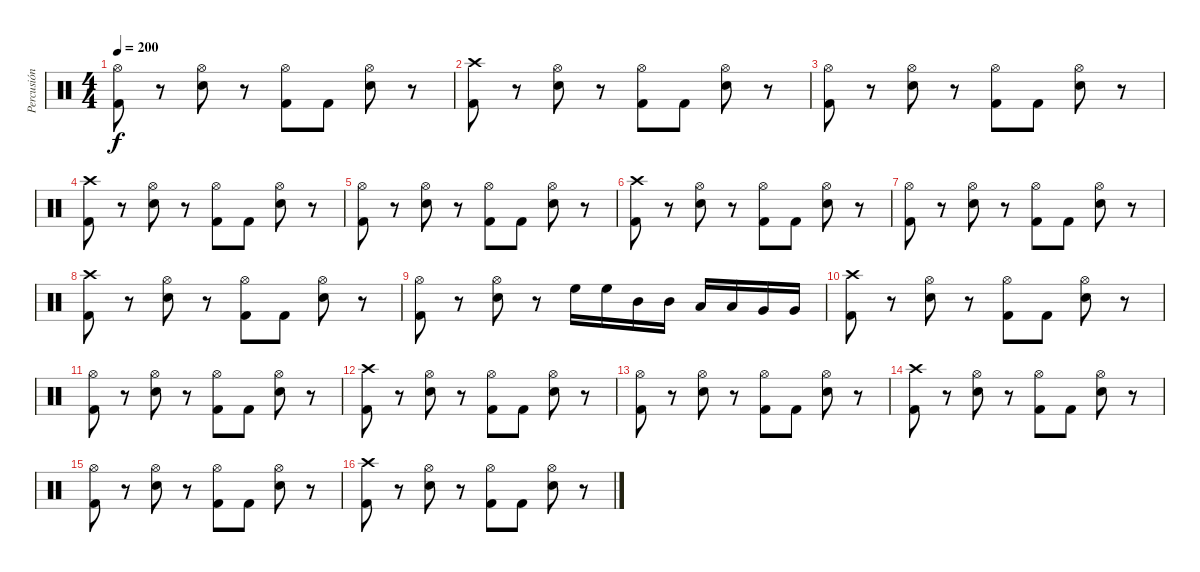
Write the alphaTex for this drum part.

\track ("Percusión" "Percusión") {instrument percussion}
\staff {score}
\articulation defaults
\ts (4 4)
\tempo 200
\clef neutral
\ks c
("Hi-Hat (open)" "Kick (hit) 2").8{dy f} r.8 ("Hi-Hat (open)" "Electric Snare (hit)").8 r.8 ("Hi-Hat (open)" "Kick (hit) 2").8 "Kick (hit) 2".8 ("Hi-Hat (open)" "Electric Snare (hit)").8 r.8 |
("Crash high (hit)" "Kick (hit) 2").8 r.8 ("Hi-Hat (open)" "Electric Snare (hit)").8 r.8 ("Hi-Hat (open)" "Kick (hit) 2").8 "Kick (hit) 2".8 ("Hi-Hat (open)" "Electric Snare (hit)").8 r.8 |
("Hi-Hat (open)" "Kick (hit) 2").8 r.8 ("Hi-Hat (open)" "Electric Snare (hit)").8 r.8 ("Hi-Hat (open)" "Kick (hit) 2").8 "Kick (hit) 2".8 ("Hi-Hat (open)" "Electric Snare (hit)").8 r.8 |
("Crash high (hit)" "Kick (hit) 2").8 r.8 ("Hi-Hat (open)" "Electric Snare (hit)").8 r.8 ("Hi-Hat (open)" "Kick (hit) 2").8 "Kick (hit) 2".8 ("Hi-Hat (open)" "Electric Snare (hit)").8 r.8 |
("Hi-Hat (open)" "Kick (hit) 2").8 r.8 ("Hi-Hat (open)" "Electric Snare (hit)").8 r.8 ("Hi-Hat (open)" "Kick (hit) 2").8 "Kick (hit) 2".8 ("Hi-Hat (open)" "Electric Snare (hit)").8 r.8 |
("Crash high (hit)" "Kick (hit) 2").8 r.8 ("Hi-Hat (open)" "Electric Snare (hit)").8 r.8 ("Hi-Hat (open)" "Kick (hit) 2").8 "Kick (hit) 2".8 ("Hi-Hat (open)" "Electric Snare (hit)").8 r.8 |
("Hi-Hat (open)" "Kick (hit) 2").8 r.8 ("Hi-Hat (open)" "Electric Snare (hit)").8 r.8 ("Hi-Hat (open)" "Kick (hit) 2").8 "Kick (hit) 2".8 ("Hi-Hat (open)" "Electric Snare (hit)").8 r.8 |
("Crash high (hit)" "Kick (hit) 2").8 r.8 ("Hi-Hat (open)" "Electric Snare (hit)").8 r.8 ("Hi-Hat (open)" "Kick (hit) 2").8 "Kick (hit) 2".8 ("Hi-Hat (open)" "Electric Snare (hit)").8 r.8 |
("Hi-Hat (open)" "Kick (hit) 2").8 r.8 ("Hi-Hat (open)" "Electric Snare (hit)").8 r.8 "High Floor Tom (hit)".16 "High Floor Tom (hit)".16 "Mid Tom (hit)".16 "Mid Tom (hit)".16 "Low Tom (hit)".16 "Low Tom (hit)".16 "Very Low Tom (hit)".16 "Very Low Tom (hit)".16 |
("Crash high (hit)" "Kick (hit) 2").8 r.8 ("Hi-Hat (open)" "Electric Snare (hit)").8 r.8 ("Hi-Hat (open)" "Kick (hit) 2").8 "Kick (hit) 2".8 ("Hi-Hat (open)" "Electric Snare (hit)").8 r.8 |
("Hi-Hat (open)" "Kick (hit) 2").8 r.8 ("Hi-Hat (open)" "Electric Snare (hit)").8 r.8 ("Hi-Hat (open)" "Kick (hit) 2").8 "Kick (hit) 2".8 ("Hi-Hat (open)" "Electric Snare (hit)").8 r.8 |
("Crash high (hit)" "Kick (hit) 2").8 r.8 ("Hi-Hat (open)" "Electric Snare (hit)").8 r.8 ("Hi-Hat (open)" "Kick (hit) 2").8 "Kick (hit) 2".8 ("Hi-Hat (open)" "Electric Snare (hit)").8 r.8 |
("Hi-Hat (open)" "Kick (hit) 2").8 r.8 ("Hi-Hat (open)" "Electric Snare (hit)").8 r.8 ("Hi-Hat (open)" "Kick (hit) 2").8 "Kick (hit) 2".8 ("Hi-Hat (open)" "Electric Snare (hit)").8 r.8 |
("Crash high (hit)" "Kick (hit) 2").8 r.8 ("Hi-Hat (open)" "Electric Snare (hit)").8 r.8 ("Hi-Hat (open)" "Kick (hit) 2").8 "Kick (hit) 2".8 ("Hi-Hat (open)" "Electric Snare (hit)").8 r.8 |
("Hi-Hat (open)" "Kick (hit) 2").8 r.8 ("Hi-Hat (open)" "Electric Snare (hit)").8 r.8 ("Hi-Hat (open)" "Kick (hit) 2").8 "Kick (hit) 2".8 ("Hi-Hat (open)" "Electric Snare (hit)").8 r.8 |
("Crash high (hit)" "Kick (hit) 2").8 r.8 ("Hi-Hat (open)" "Electric Snare (hit)").8 r.8 ("Hi-Hat (open)" "Kick (hit) 2").8 "Kick (hit) 2".8 ("Hi-Hat (open)" "Electric Snare (hit)").8 r.8
